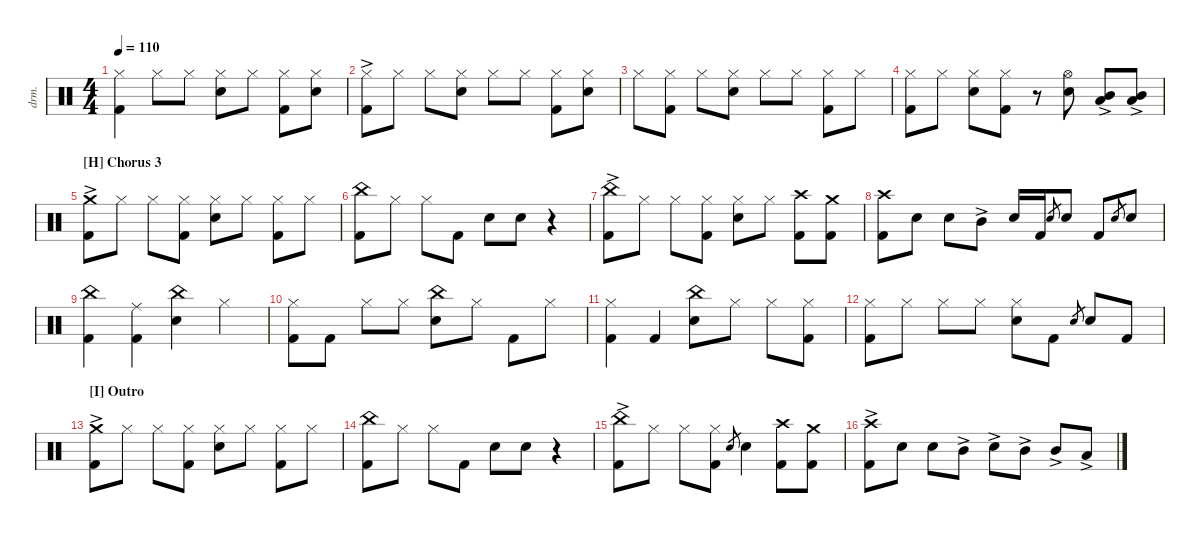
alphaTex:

\defaultSystemsLayout 4
\hideDynamics
\bracketExtendMode nobrackets
\otherSystemsTrackNameOrientation horizontal
\track ("Drums" "drm.") {instrument percussion}
\staff {score}
\articulation defaults
\ts (4 4)
\tempo 110
\clef neutral
\ks aminor
("Kick (hit) 2" "Hi-Hat (closed)").4{dy f beam Down} "Hi-Hat (closed)".8{beam Down} "Hi-Hat (closed)".8{beam Down} ("Hi-Hat (closed)" "Snare (hit) 2").8{beam Down} "Hi-Hat (closed)".8{beam Down} ("Hi-Hat (closed)" "Kick (hit) 2").8{beam Down} ("Hi-Hat (closed)" "Snare (hit) 2").8{beam Down} |
("Kick (hit) 2"{ac} "Hi-Hat (closed)").8{beam Down} "Hi-Hat (closed)".8{beam Down} "Hi-Hat (closed)".8{beam Down} ("Hi-Hat (closed)" "Snare (hit) 2").8{beam Down} "Hi-Hat (closed)".8{beam Down} "Hi-Hat (closed)".8{beam Down} ("Hi-Hat (closed)" "Kick (hit) 2").8{beam Down} ("Hi-Hat (closed)" "Snare (hit) 2").8{beam Down} |
"Hi-Hat (closed)".8{beam Down} ("Hi-Hat (closed)" "Kick (hit) 2").8{beam Down} "Hi-Hat (closed)".8{beam Down} ("Hi-Hat (closed)" "Snare (hit) 2").8{beam Down} "Hi-Hat (closed)".8{beam Down} "Hi-Hat (closed)".8{beam Down} ("Hi-Hat (closed)" "Kick (hit) 2").8{beam Down} "Hi-Hat (closed)".8{beam Down} |
("Hi-Hat (closed)" "Kick (hit) 2").8{beam Down} "Hi-Hat (closed)".8{beam Down} ("Hi-Hat (closed)" "Snare (hit) 2").8{beam Down} ("Kick (hit) 2" "Hi-Hat (closed)").8{beam Down} r.8{beam Down} ("Snare (hit) 2" "Hi-Hat (open)").8{beam Down} ("Mid Tom (hit)"{ac} "Low Tom (hit)"{ac}).8{beam Up} ("Mid Tom (hit)"{ac} "Low Tom (hit)"{ac}).8{beam Up} |
\section ("H" "Chorus 3")
("Kick (hit) 2"{ac} "Crash medium (hit)"{ac}).8{beam Down} "Hi-Hat (closed)".8{beam Down} "Hi-Hat (closed)".8{beam Down} ("Hi-Hat (closed)" "Kick (hit) 2").8{beam Down} ("Snare (hit) 2" "Hi-Hat (closed)").8{beam Down} "Hi-Hat (closed)".8{beam Down} ("Hi-Hat (closed)" "Kick (hit) 2").8{beam Down} "Hi-Hat (closed)".8{beam Down} |
("Kick (hit) 2" "China (hit)").8{beam Down} "Hi-Hat (closed)".8{beam Down} "Hi-Hat (closed)".8{beam Down} "Kick (hit) 2".8{beam Down} "Snare (hit) 2".8{beam Down} "Snare (hit) 2".8{beam Down} r.4{beam Down} |
("Kick (hit) 2"{ac} "China (hit)"{ac}).8{beam Down} "Hi-Hat (closed)".8{beam Down} "Hi-Hat (closed)".8{beam Down} ("Hi-Hat (closed)" "Kick (hit) 2").8{beam Down} ("Snare (hit) 2" "Hi-Hat (closed)").8{beam Down} "Hi-Hat (closed)".8{beam Down} ("Kick (hit) 2" "Crash high (hit)").8{beam Down} ("Kick (hit) 2" "Crash medium (hit)").8{beam Down} |
("Kick (hit) 2" "Crash high (hit)").8{beam Down} "Snare (hit) 2".8{beam Down} "Snare (hit) 2".8{beam Down} "Mid Tom (hit)"{ac}.8{beam Down} "Snare (hit) 2".16{beam Up} "Kick (hit) 2".16{beam Up} "Snare (hit) 2".8{gr beam Up} "Snare (hit) 2".8{beam Up} "Kick (hit) 2".8{beam Up} "Snare (hit) 2".8{gr beam Up} "Snare (hit) 2".8{beam Up} |
("Kick (hit) 2" "China (hit)").4{beam Down} ("Ride (middle)" "Kick (hit) 2").4{beam Down} ("Snare (hit) 2" "China (hit)").4{beam Down} "Hi-Hat (closed)".4{beam Down} |
("Hi-Hat (closed)" "Kick (hit) 2").8{beam Down} "Kick (hit) 2".8{beam Down} "Hi-Hat (closed)".8{beam Down} "Hi-Hat (closed)".8{beam Down} ("Snare (hit) 2" "China (hit)").8{beam Down} "Hi-Hat (closed)".8{beam Down} "Kick (hit) 2".8{beam Down} "Hi-Hat (closed)".8{beam Down} |
("Kick (hit) 2" "Hi-Hat (closed)").4{beam Down} "Kick (hit) 2".4{beam Up} ("Snare (hit) 2" "China (hit)").8{beam Down} "Hi-Hat (closed)".8{beam Down} "Hi-Hat (closed)".8{beam Down} ("Hi-Hat (closed)" "Kick (hit) 2").8{beam Down} |
("Kick (hit) 2" "Hi-Hat (closed)").8{beam Down} "Hi-Hat (closed)".8{beam Down} "Hi-Hat (closed)".8{beam Down} "Hi-Hat (closed)".8{beam Down} ("Hi-Hat (closed)" "Snare (hit) 2").8{beam Down} "Kick (hit) 2".8{beam Down} "Snare (hit) 2".8{gr beam Up} "Snare (hit) 2".8{beam Up} "Kick (hit) 2".8{beam Up} |
\section ("I" "Outro")
("Kick (hit) 2"{ac} "Crash medium (hit)"{ac}).8{beam Down} "Hi-Hat (closed)".8{beam Down} "Hi-Hat (closed)".8{beam Down} ("Hi-Hat (closed)" "Kick (hit) 2").8{beam Down} ("Snare (hit) 2" "Hi-Hat (closed)").8{beam Down} "Hi-Hat (closed)".8{beam Down} ("Hi-Hat (closed)" "Kick (hit) 2").8{beam Down} "Hi-Hat (closed)".8{beam Down} |
("Kick (hit) 2" "China (hit)").8{beam Down} "Hi-Hat (closed)".8{beam Down} "Hi-Hat (closed)".8{beam Down} "Kick (hit) 2".8{beam Down} "Snare (hit) 2".8{beam Down} "Snare (hit) 2".8{beam Down} r.4{beam Down} |
("Kick (hit) 2"{ac} "China (hit)"{ac}).8{beam Down} "Hi-Hat (closed)".8{beam Down} "Hi-Hat (closed)".8{beam Down} ("Hi-Hat (closed)" "Kick (hit) 2").8{beam Down} "Snare (hit) 2".8{gr beam Up} "Snare (hit) 2".4{beam Down} ("Kick (hit) 2" "Crash high (hit)").8{beam Down} ("Kick (hit) 2" "Crash medium (hit)").8{beam Down} |
("Kick (hit) 2" "Crash high (hit)"{ac}).8{beam Down} "Snare (hit) 2".8{beam Down} "Snare (hit) 2".8{beam Down} "Mid Tom (hit)"{ac}.8{beam Down} "Snare (hit) 2"{ac}.8{beam Down} "Mid Tom (hit)"{ac}.8{beam Down} "Mid Tom (hit)"{ac}.8{beam Up} "Low Tom (hit)"{ac}.8{beam Up}
